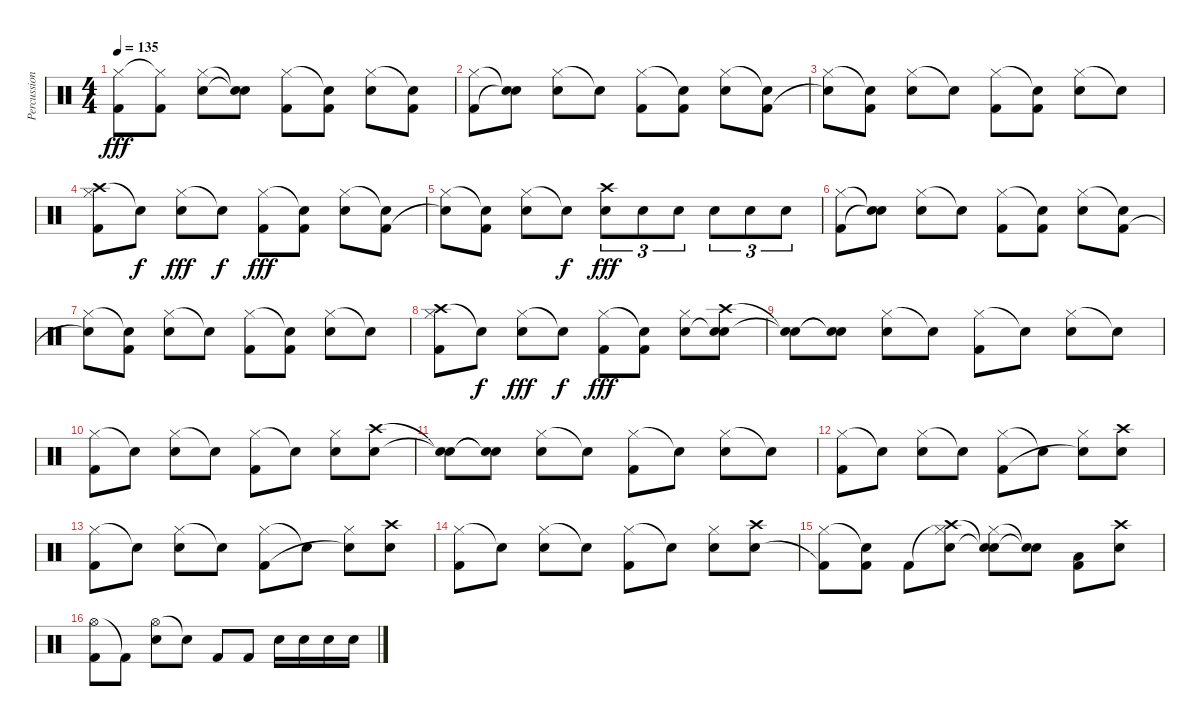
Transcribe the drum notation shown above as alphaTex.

\track ("Percussion" "Percussion") {instrument percussion}
\staff {score}
\articulation defaults
\ts (4 4)
\tempo 135
\clef neutral
\ks c
("Kick (hit) 2" "Hi-Hat (closed)").8{dy fff} ("Kick (hit) 2" "Hi-Hat (closed)"{t}).8 ("Electric Snare (hit)" "Hi-Hat (closed)").8 ("Snare (hit)"{t} "Snare (hit)"{t}).8 ("Kick (hit) 2" "Hi-Hat (closed)").8 ("Kick (hit) 2" "Snare (hit)"{t}).8 ("Electric Snare (hit)" "Hi-Hat (closed)").8 ("Kick (hit) 2" "Snare (hit)"{t}).8 |
("Hi-Hat (closed)" "Kick (hit) 2").8 ("Snare (hit)"{t} "Snare (hit)"{t}).8 ("Hi-Hat (closed)" "Electric Snare (hit)").8 "Snare (hit)"{t}.8 ("Hi-Hat (closed)" "Kick (hit) 2").8 ("Snare (hit)"{t} "Kick (hit) 2").8 ("Hi-Hat (closed)" "Electric Snare (hit)").8 ("Snare (hit)"{t} "Kick (hit) 2").8 |
("Hi-Hat (closed)" "Snare (hit)"{t}).8 ("Snare (hit)"{t} "Kick (hit) 2").8 ("Hi-Hat (closed)" "Electric Snare (hit)").8 "Snare (hit)"{t}.8 ("Hi-Hat (closed)" "Kick (hit) 2").8 ("Snare (hit)"{t} "Kick (hit) 2").8 ("Hi-Hat (closed)" "Electric Snare (hit)").8 "Snare (hit)"{t}.8 |
("Crash high (hit)" "Hi-Hat (closed)" "Kick (hit) 2").8 "Snare (hit)"{t}.8{dy f} ("Hi-Hat (closed)" "Electric Snare (hit)").8{dy fff} "Snare (hit)"{t}.8{dy f} ("Hi-Hat (closed)" "Kick (hit) 2").8{dy fff} ("Snare (hit)"{t} "Kick (hit) 2").8 ("Hi-Hat (closed)" "Electric Snare (hit)").8 ("Snare (hit)"{t} "Kick (hit) 2").8 |
("Hi-Hat (closed)" "Snare (hit)"{t}).8 ("Snare (hit)"{t} "Kick (hit) 2").8 ("Hi-Hat (closed)" "Electric Snare (hit)").8 "Snare (hit)"{t}.8{dy f} ("Crash high (hit)" "Electric Snare (hit)").8{tu (3 2) dy fff} "Electric Snare (hit)".8{tu (3 2)} "Electric Snare (hit)".8{tu (3 2)} "Electric Snare (hit)".8{tu (3 2)} "Electric Snare (hit)".8{tu (3 2)} "Electric Snare (hit)".8{tu (3 2)} |
("Hi-Hat (closed)" "Kick (hit) 2").8 ("Snare (hit)"{t} "Snare (hit)"{t}).8 ("Hi-Hat (closed)" "Electric Snare (hit)").8 "Snare (hit)"{t}.8 ("Hi-Hat (closed)" "Kick (hit) 2").8 ("Snare (hit)"{t} "Kick (hit) 2").8 ("Hi-Hat (closed)" "Electric Snare (hit)").8 ("Snare (hit)"{t} "Kick (hit) 2").8 |
("Hi-Hat (closed)" "Snare (hit)"{t}).8 ("Snare (hit)"{t} "Kick (hit) 2").8 ("Hi-Hat (closed)" "Electric Snare (hit)").8 "Snare (hit)"{t}.8 ("Hi-Hat (closed)" "Kick (hit) 2").8 ("Snare (hit)"{t} "Kick (hit) 2").8 ("Hi-Hat (closed)" "Electric Snare (hit)").8 "Snare (hit)"{t}.8 |
("Crash high (hit)" "Hi-Hat (closed)" "Kick (hit) 2").8 "Snare (hit)"{t}.8{dy f} ("Hi-Hat (closed)" "Electric Snare (hit)").8{dy fff} "Snare (hit)"{t}.8{dy f} ("Hi-Hat (closed)" "Kick (hit) 2").8{dy fff} ("Snare (hit)"{t} "Kick (hit) 2").8 ("Hi-Hat (closed)" "Electric Snare (hit)").8 ("Crash high (hit)" "Snare (hit)"{t} "Electric Snare (hit)").8 |
("Snare (hit)"{t} "Snare (hit)"{t}).8 ("Snare (hit)"{t} "Snare (hit)"{t}).8 ("Hi-Hat (closed)" "Electric Snare (hit)").8 "Snare (hit)"{t}.8 ("Hi-Hat (closed)" "Kick (hit) 2").8 "Snare (hit)"{t}.8 ("Hi-Hat (closed)" "Electric Snare (hit)").8 "Snare (hit)"{t}.8 |
("Hi-Hat (closed)" "Kick (hit) 2").8 "Snare (hit)"{t}.8 ("Hi-Hat (closed)" "Electric Snare (hit)").8 "Snare (hit)"{t}.8 ("Hi-Hat (closed)" "Kick (hit) 2").8 "Snare (hit)"{t}.8 ("Hi-Hat (closed)" "Electric Snare (hit)").8 ("Crash high (hit)" "Electric Snare (hit)").8 |
("Snare (hit)"{t} "Snare (hit)"{t}).8 ("Snare (hit)"{t} "Snare (hit)"{t}).8 ("Hi-Hat (closed)" "Electric Snare (hit)").8 "Snare (hit)"{t}.8 ("Hi-Hat (closed)" "Kick (hit) 2").8 "Snare (hit)"{t}.8 ("Hi-Hat (closed)" "Electric Snare (hit)").8 "Snare (hit)"{t}.8 |
("Hi-Hat (closed)" "Kick (hit) 2").8 "Snare (hit)"{t}.8 ("Hi-Hat (closed)" "Electric Snare (hit)").8 "Snare (hit)"{t}.8 ("Hi-Hat (closed)" "Kick (hit) 2").8 "Snare (hit)"{t}.8 ("Hi-Hat (closed)" "Electric Snare (hit)"{t}).8 ("Crash high (hit)" "Electric Snare (hit)").8 |
("Hi-Hat (closed)" "Kick (hit) 2").8 "Snare (hit)"{t}.8 ("Hi-Hat (closed)" "Electric Snare (hit)").8 "Snare (hit)"{t}.8 ("Hi-Hat (closed)" "Kick (hit) 2").8 "Snare (hit)"{t}.8 ("Hi-Hat (closed)" "Electric Snare (hit)"{t}).8 ("Crash high (hit)" "Electric Snare (hit)").8 |
("Hi-Hat (closed)" "Kick (hit) 2").8 "Snare (hit)"{t}.8 ("Hi-Hat (closed)" "Electric Snare (hit)").8 "Snare (hit)"{t}.8 ("Hi-Hat (closed)" "Kick (hit) 2").8 "Snare (hit)"{t}.8 ("Hi-Hat (closed)" "Electric Snare (hit)").8 ("Crash high (hit)" "Electric Snare (hit)").8 |
("Hi-Hat (closed)" "Kick (hit) 2"{t}).8 ("Snare (hit)"{t} "Kick (hit) 2").8 "Kick (hit) 2".8 ("Hi-Hat (closed)"{t} "Crash high (hit)" "Electric Snare (hit)").8 ("Hi-Hat (closed)" "Snare (hit)"{t} "Snare (hit)"{t}).8 ("Snare (hit)"{t} "Snare (hit)"{t}).8 ("Kick (hit) 2" "Low Floor Tom (hit)").8 ("Crash high (hit)" "Electric Snare (hit)").8 |
("Hi-Hat (open)" "Kick (hit) 2").8 "Kick (hit) 2"{t}.8 ("Hi-Hat (open)" "Electric Snare (hit)").8 "Snare (hit)"{t}.8 "Kick (hit) 2".8 "Kick (hit) 2".8 "Electric Snare (hit)".16 "Electric Snare (hit)".16 "Electric Snare (hit)".16 "Electric Snare (hit)".16
